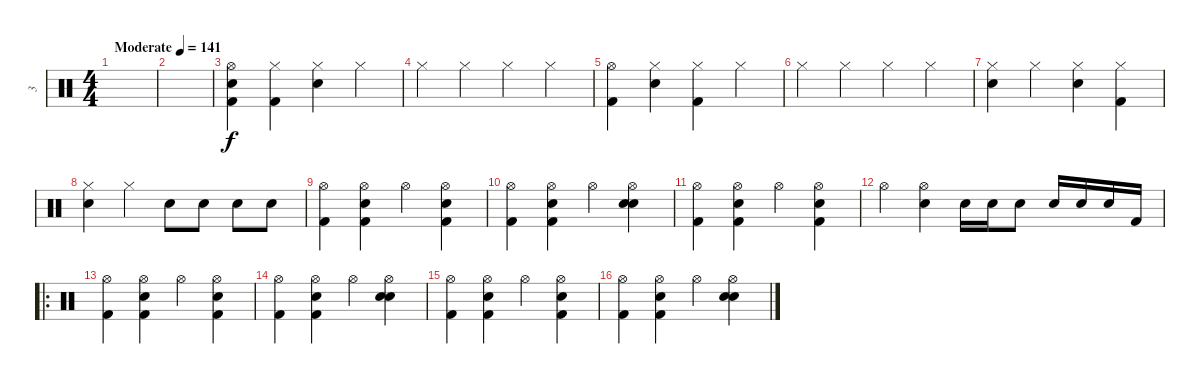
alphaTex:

\track ("3" "3") {instrument percussion}
\staff {score}
\articulation defaults
\ts (4 4)
\tempo (141 "Moderate")
\clef neutral
\ks c
|
|
("Kick (hit) 2" "Snare (hit) 2" "Hi-Hat (open)").4 ("Kick (hit) 2" "Hi-Hat (closed)").4 ("Snare (hit) 2" "Hi-Hat (closed)").4 "Hi-Hat (closed)".4 |
"Hi-Hat (closed)".4 "Hi-Hat (closed)".4 "Hi-Hat (closed)".4 "Hi-Hat (closed)".4 |
("Kick (hit) 2" "Hi-Hat (open)").4 ("Snare (hit) 2" "Hi-Hat (closed)").4 ("Kick (hit) 2" "Hi-Hat (closed)").4 "Hi-Hat (closed)".4 |
"Hi-Hat (closed)".4 "Hi-Hat (closed)".4 "Hi-Hat (closed)".4 "Hi-Hat (closed)".4 |
("Snare (hit) 2" "Hi-Hat (closed)").4 "Hi-Hat (closed)".4 ("Snare (hit) 2" "Hi-Hat (closed)").4 ("Kick (hit) 2" "Hi-Hat (closed)").4 |
("Snare (hit) 2" "Hi-Hat (closed)").4 "Hi-Hat (closed)".4 "Snare (hit) 2".8 "Snare (hit) 2".8 "Snare (hit) 2".8 "Snare (hit) 2".8 |
("Kick (hit) 2" "Hi-Hat (open)").4 ("Kick (hit) 2" "Snare (hit) 2" "Hi-Hat (open)").4 "Hi-Hat (open)".4 ("Kick (hit) 2" "Snare (hit) 2" "Hi-Hat (open)").4 |
("Kick (hit) 2" "Hi-Hat (open)").4 ("Kick (hit) 2" "Snare (hit) 2" "Hi-Hat (open)").4 "Hi-Hat (open)".4 ("Snare (hit) 2" "Snare (hit) 2" "Hi-Hat (open)").4 |
("Kick (hit) 2" "Hi-Hat (open)").4 ("Kick (hit) 2" "Snare (hit) 2" "Hi-Hat (open)").4 "Hi-Hat (open)".4 ("Kick (hit) 2" "Snare (hit) 2" "Hi-Hat (open)").4 |
"Hi-Hat (open)".4 ("Snare (hit) 2" "Hi-Hat (open)").4 "Snare (hit) 2".16 "Snare (hit) 2".16 "Snare (hit) 2".8 "Snare (hit) 2".16 "Snare (hit) 2".16 "Snare (hit) 2".16 "Kick (hit) 2".16 |
\ro
("Kick (hit) 2" "Hi-Hat (open)").4 ("Kick (hit) 2" "Snare (hit) 2" "Hi-Hat (open)").4 "Hi-Hat (open)".4 ("Kick (hit) 2" "Snare (hit) 2" "Hi-Hat (open)").4 |
("Kick (hit) 2" "Hi-Hat (open)").4 ("Kick (hit) 2" "Snare (hit) 2" "Hi-Hat (open)").4 "Hi-Hat (open)".4 ("Snare (hit) 2" "Snare (hit) 2" "Hi-Hat (open)").4 |
("Kick (hit) 2" "Hi-Hat (open)").4 ("Kick (hit) 2" "Snare (hit) 2" "Hi-Hat (open)").4 "Hi-Hat (open)".4 ("Kick (hit) 2" "Snare (hit) 2" "Hi-Hat (open)").4 |
("Kick (hit) 2" "Hi-Hat (open)").4 ("Kick (hit) 2" "Snare (hit) 2" "Hi-Hat (open)").4 "Hi-Hat (open)".4 ("Snare (hit) 2" "Snare (hit) 2" "Hi-Hat (open)").4
